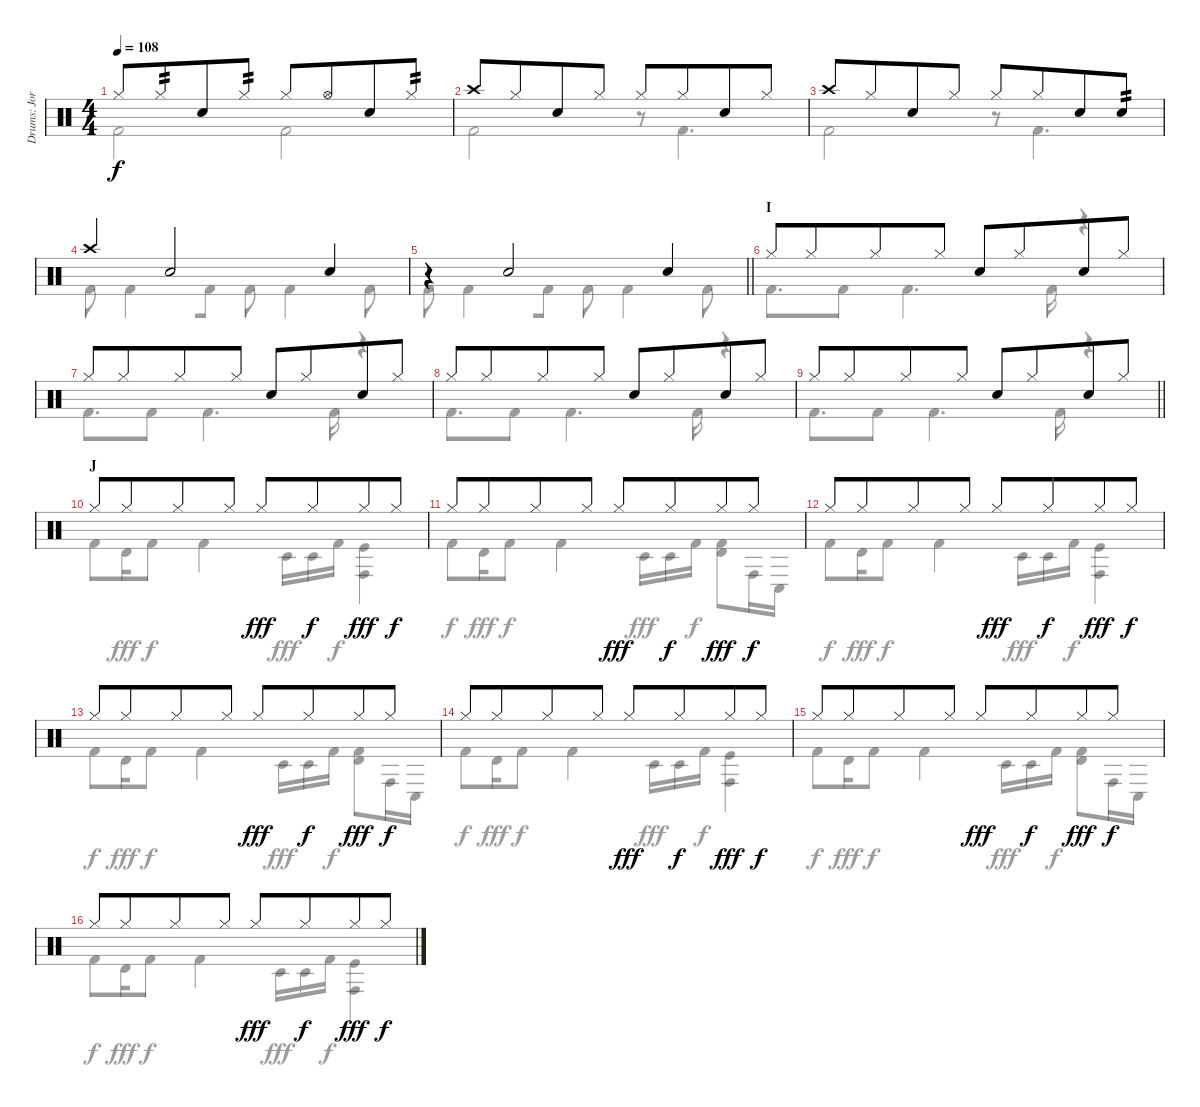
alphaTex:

\track ("Drums: Jorg" "Drums: Jor") {instrument percussion}
\staff {score}
\articulation defaults
\voice
\ts (4 4)
\tempo 108
\clef neutral
\ks c "Hi-Hat (closed)".8{dy f} "Hi-Hat (closed)".8{tp 2 beam merge} "Snare (hit) 2".8 "Hi-Hat (closed)".8{tp 2} "Hi-Hat (closed)".8 "Hi-Hat (open)".8{beam merge} "Snare (hit) 2".8 "Hi-Hat (closed)".8{tp 2}
|
"Crash high (hit)".8 "Hi-Hat (closed)".8{beam merge} "Snare (hit) 2".8 "Hi-Hat (closed)".8 "Hi-Hat (closed)".8 "Hi-Hat (closed)".8{beam merge} "Snare (hit) 2".8 "Hi-Hat (closed)".8 |
"Crash high (hit)".8 "Hi-Hat (closed)".8{beam merge} "Snare (hit) 2".8 "Hi-Hat (closed)".8 "Hi-Hat (closed)".8 "Hi-Hat (closed)".8{beam merge} "Snare (hit) 2".8 "Electric Snare (hit)".8{tp 2} |
"Crash high (hit)".4{beam merge} "Snare (hit) 2".2 "Snare (hit) 2".4 |
\barLineRight lightlight
r.4{beam merge} "Snare (hit) 2".2{beam merge} "Snare (hit) 2".4 |
\section ("" "I")
"Hi-Hat (closed)".8 "Hi-Hat (closed)".8{beam merge} "Hi-Hat (closed)".8 "Hi-Hat (closed)".8 "Snare (hit) 2".8 "Hi-Hat (closed)".8{beam merge} "Snare (hit) 2".8 "Hi-Hat (closed)".8 |
"Hi-Hat (closed)".8 "Hi-Hat (closed)".8{beam merge} "Hi-Hat (closed)".8 "Hi-Hat (closed)".8 "Snare (hit) 2".8 "Hi-Hat (closed)".8{beam merge} "Snare (hit) 2".8 "Hi-Hat (closed)".8 |
"Hi-Hat (closed)".8 "Hi-Hat (closed)".8{beam merge} "Hi-Hat (closed)".8 "Hi-Hat (closed)".8 "Snare (hit) 2".8 "Hi-Hat (closed)".8{beam merge} "Snare (hit) 2".8 "Hi-Hat (closed)".8 |
\barLineRight lightlight "Hi-Hat (closed)".8 "Hi-Hat (closed)".8{beam merge} "Hi-Hat (closed)".8 "Hi-Hat (closed)".8 "Snare (hit) 2".8 "Hi-Hat (closed)".8{beam merge} "Snare (hit) 2".8 "Hi-Hat (closed)".8
|
\section ("" "J")
"Hi-Hat (closed)".8 "Hi-Hat (closed)".8{beam merge} "Hi-Hat (closed)".8 "Hi-Hat (closed)".8 "Hi-Hat (closed)".8{dy fff} "Hi-Hat (closed)".8{dy f beam merge} "Hi-Hat (closed)".8{dy fff} "Hi-Hat (closed)".8{dy f} |
"Hi-Hat (closed)".8 "Hi-Hat (closed)".8{beam merge} "Hi-Hat (closed)".8 "Hi-Hat (closed)".8 "Hi-Hat (closed)".8{dy fff} "Hi-Hat (closed)".8{dy f beam merge} "Hi-Hat (closed)".8{dy fff} "Hi-Hat (closed)".8{dy f} |
"Hi-Hat (closed)".8 "Hi-Hat (closed)".8{beam merge} "Hi-Hat (closed)".8 "Hi-Hat (closed)".8 "Hi-Hat (closed)".8{dy fff} "Hi-Hat (closed)".8{dy f beam merge} "Hi-Hat (closed)".8{dy fff} "Hi-Hat (closed)".8{dy f} |
"Hi-Hat (closed)".8 "Hi-Hat (closed)".8{beam merge} "Hi-Hat (closed)".8 "Hi-Hat (closed)".8 "Hi-Hat (closed)".8{dy fff} "Hi-Hat (closed)".8{dy f beam merge} "Hi-Hat (closed)".8{dy fff} "Hi-Hat (closed)".8{dy f} |
"Hi-Hat (closed)".8 "Hi-Hat (closed)".8{beam merge} "Hi-Hat (closed)".8 "Hi-Hat (closed)".8 "Hi-Hat (closed)".8{dy fff} "Hi-Hat (closed)".8{dy f beam merge} "Hi-Hat (closed)".8{dy fff} "Hi-Hat (closed)".8{dy f} |
"Hi-Hat (closed)".8 "Hi-Hat (closed)".8{beam merge} "Hi-Hat (closed)".8 "Hi-Hat (closed)".8 "Hi-Hat (closed)".8{dy fff} "Hi-Hat (closed)".8{dy f beam merge} "Hi-Hat (closed)".8{dy fff} "Hi-Hat (closed)".8{dy f} |
"Hi-Hat (closed)".8 "Hi-Hat (closed)".8{beam merge} "Hi-Hat (closed)".8 "Hi-Hat (closed)".8 "Hi-Hat (closed)".8{dy fff} "Hi-Hat (closed)".8{dy f beam merge} "Hi-Hat (closed)".8{dy fff} "Hi-Hat (closed)".8{dy f}
\voice
\clef neutral
\ottava regular
\simile none
\ks c "Kick (hit) 2".2{dy f} "Kick (hit) 2".2
|
"Kick (hit) 2".2 r.8 "Kick (hit) 2".4{d} |
"Kick (hit) 2".2 r.8 "Kick (hit) 2".4{d} |
"Kick (hit) 2".8 "Kick (hit) 2".4{beam merge} "Kick (hit) 2".8 "Kick (hit) 2".8 "Kick (hit) 2".4 "Kick (hit) 2".8 |
\barLineRight lightlight "Kick (hit) 2".8 "Kick (hit) 2".4{beam merge} "Kick (hit) 2".8 "Kick (hit) 2".8 "Kick (hit) 2".4 "Kick (hit) 2".8
|
"Kick (hit) 2".8{d} "Kick (hit) 2".8 "Kick (hit) 2".4{d} "Kick (hit) 2".16 r.4 |
"Kick (hit) 2".8{d} "Kick (hit) 2".8 "Kick (hit) 2".4{d} "Kick (hit) 2".16 r.4 |
"Kick (hit) 2".8{d} "Kick (hit) 2".8 "Kick (hit) 2".4{d} "Kick (hit) 2".16 r.4 |
\barLineRight lightlight "Kick (hit) 2".8{d} "Kick (hit) 2".8 "Kick (hit) 2".4{d} "Kick (hit) 2".16
r.4 |
"Kick (hit) 2".8 "Timbale high (hit)".16{dy fff} "Kick (hit) 2".8{dy f} "Kick (hit) 2".4 "Timbale low (hit)".16{dy fff} "Timbale low (hit)".16 "Kick (hit) 2".16{dy f} ("Kick (hit)" "Conga high (hit)").4{dy fff} |
"Kick (hit) 2".8{dy f} "Timbale high (hit)".16{dy fff} "Kick (hit) 2".8{dy f} "Kick (hit) 2".4 "Timbale low (hit)".16{dy fff} "Timbale low (hit)".16 "Kick (hit) 2".16{dy f} ("Kick (hit) 2" "Timbale high (hit)").8{dy fff} "Conga high (hit)".16 "Conga low (hit)".16 |
"Kick (hit) 2".8{dy f} "Timbale high (hit)".16{dy fff} "Kick (hit) 2".8{dy f} "Kick (hit) 2".4 "Timbale low (hit)".16{dy fff} "Timbale low (hit)".16 "Kick (hit) 2".16{dy f} ("Kick (hit)" "Conga high (hit)").4{dy fff} |
"Kick (hit) 2".8{dy f} "Timbale high (hit)".16{dy fff} "Kick (hit) 2".8{dy f} "Kick (hit) 2".4 "Timbale low (hit)".16{dy fff} "Timbale low (hit)".16 "Kick (hit) 2".16{dy f} ("Kick (hit) 2" "Timbale high (hit)").8{dy fff} "Conga high (hit)".16 "Conga low (hit)".16 |
"Kick (hit) 2".8{dy f} "Timbale high (hit)".16{dy fff} "Kick (hit) 2".8{dy f} "Kick (hit) 2".4 "Timbale low (hit)".16{dy fff} "Timbale low (hit)".16 "Kick (hit) 2".16{dy f} ("Kick (hit)" "Conga high (hit)").4{dy fff} |
"Kick (hit) 2".8{dy f} "Timbale high (hit)".16{dy fff} "Kick (hit) 2".8{dy f} "Kick (hit) 2".4 "Timbale low (hit)".16{dy fff} "Timbale low (hit)".16 "Kick (hit) 2".16{dy f} ("Kick (hit) 2" "Timbale high (hit)").8{dy fff} "Conga high (hit)".16 "Conga low (hit)".16 |
"Kick (hit) 2".8{dy f} "Timbale high (hit)".16{dy fff} "Kick (hit) 2".8{dy f} "Kick (hit) 2".4 "Timbale low (hit)".16{dy fff} "Timbale low (hit)".16 "Kick (hit) 2".16{dy f} ("Kick (hit)" "Conga high (hit)").4{dy fff}
